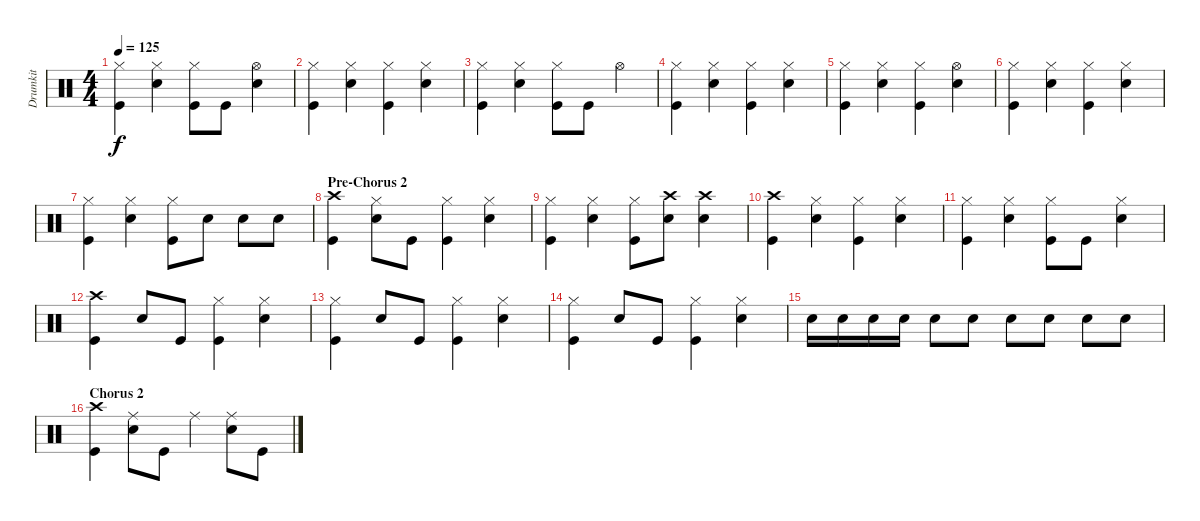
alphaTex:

\track ("Drumkit" "Drumkit") {instrument percussion}
\staff {score}
\articulation defaults
\ts (4 4)
\tempo 125
\clef neutral
\ks c
("Hi-Hat (closed)" "Kick (hit)").4{dy f} ("Hi-Hat (closed)" "Snare (hit) 2").4 ("Hi-Hat (closed)" "Kick (hit)").8 "Kick (hit)".8 ("Hi-Hat (open)" "Snare (hit) 2").4 |
("Hi-Hat (closed)" "Kick (hit)").4 ("Hi-Hat (closed)" "Snare (hit) 2").4 ("Hi-Hat (closed)" "Kick (hit)").4 ("Hi-Hat (closed)" "Snare (hit) 2").4 |
("Hi-Hat (closed)" "Kick (hit)").4 ("Hi-Hat (closed)" "Snare (hit) 2").4 ("Hi-Hat (closed)" "Kick (hit)").8 "Kick (hit)".8 "Hi-Hat (open)".4 |
("Hi-Hat (closed)" "Kick (hit)").4 ("Hi-Hat (closed)" "Snare (hit) 2").4 ("Hi-Hat (closed)" "Kick (hit)").4 ("Hi-Hat (closed)" "Snare (hit) 2").4 |
("Hi-Hat (closed)" "Kick (hit)").4 ("Hi-Hat (closed)" "Snare (hit) 2").4 ("Hi-Hat (closed)" "Kick (hit)").4 ("Hi-Hat (open)" "Snare (hit) 2").4 |
("Hi-Hat (closed)" "Kick (hit)").4 ("Hi-Hat (closed)" "Snare (hit) 2").4 ("Hi-Hat (closed)" "Kick (hit)").4 ("Hi-Hat (closed)" "Snare (hit) 2").4 |
("Hi-Hat (closed)" "Kick (hit)").4 ("Hi-Hat (closed)" "Snare (hit) 2").4 ("Hi-Hat (closed)" "Kick (hit)").8 "Snare (hit) 2".8 "Snare (hit) 2".8 "Snare (hit) 2".8 |
\section ("" "Pre-Chorus 2")
("Crash high (hit)" "Kick (hit)").4 ("Hi-Hat (closed)" "Snare (hit) 2").8 "Kick (hit)".8 ("Hi-Hat (closed)" "Kick (hit)").4 ("Hi-Hat (closed)" "Snare (hit) 2").4 |
("Hi-Hat (closed)" "Kick (hit)").4 ("Hi-Hat (closed)" "Snare (hit) 2").4 ("Hi-Hat (closed)" "Kick (hit)").8 ("Crash high (hit)" "Snare (hit) 2").8 ("Crash high (hit)" "Snare (hit) 2").4 |
("Crash high (hit)" "Kick (hit)").4 ("Hi-Hat (closed)" "Snare (hit) 2").4 ("Hi-Hat (closed)" "Kick (hit)").4 ("Hi-Hat (closed)" "Snare (hit) 2").4 |
("Hi-Hat (closed)" "Kick (hit)").4 ("Hi-Hat (closed)" "Snare (hit) 2").4 ("Hi-Hat (closed)" "Kick (hit)").8 "Kick (hit)".8 ("Hi-Hat (closed)" "Snare (hit) 2").4 |
("Crash high (hit)" "Kick (hit)").4 "Snare (hit) 2".8 "Kick (hit)".8 ("Hi-Hat (closed)" "Kick (hit)").4 ("Hi-Hat (closed)" "Snare (hit) 2").4 |
("Hi-Hat (closed)" "Kick (hit)").4 "Snare (hit) 2".8 "Kick (hit)".8 ("Hi-Hat (closed)" "Kick (hit)").4 ("Hi-Hat (closed)" "Snare (hit) 2").4 |
("Hi-Hat (closed)" "Kick (hit)").4 "Snare (hit) 2".8 "Kick (hit)".8 ("Hi-Hat (closed)" "Kick (hit)").4 ("Hi-Hat (closed)" "Snare (hit) 2").4 |
"Snare (hit) 2".16 "Snare (hit) 2".16 "Snare (hit) 2".16 "Snare (hit) 2".16 "Snare (hit) 2".8 "Snare (hit) 2".8 "Snare (hit) 2".8 "Snare (hit) 2".8 "Snare (hit) 2".8 "Snare (hit) 2".8 |
\section ("" "Chorus 2")
("Crash high (hit)" "Kick (hit)").4 ("Ride (middle)" "Snare (hit) 2").8 "Kick (hit)".8 "Ride (middle)".4 ("Ride (middle)" "Snare (hit) 2").8 "Kick (hit)".8
